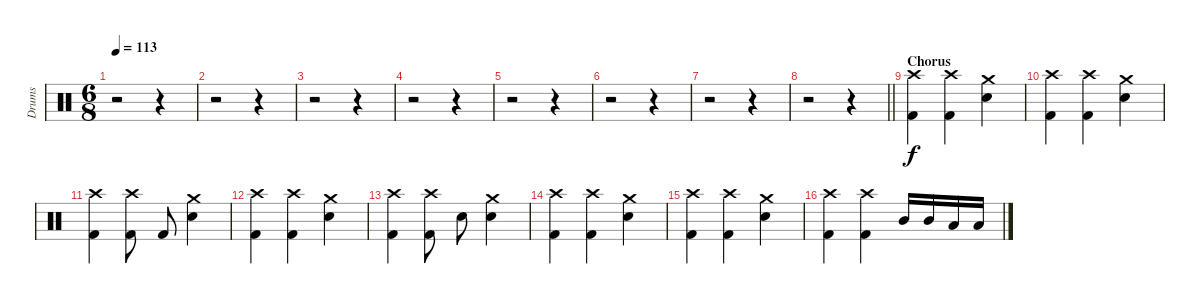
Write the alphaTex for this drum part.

\track ("Drums" "Drums") {instrument percussion}
\staff {score}
\articulation defaults
\ts (6 8)
\tempo 113
\clef neutral
\ks c
r.2{dy f} r.4 |
r.2 r.4 |
r.2 r.4 |
r.2 r.4 |
r.2 r.4 |
r.2 r.4 |
r.2 r.4 |
\barLineRight lightlight
r.2 r.4 |
\section ("" "Chorus")
("Crash high (hit)" "Kick (hit) 2").4 ("Crash high (hit)" "Kick (hit) 2").4 ("Crash medium (hit)" "Electric Snare (hit)").4 |
("Crash high (hit)" "Kick (hit) 2").4 ("Crash high (hit)" "Kick (hit) 2").4 ("Crash medium (hit)" "Electric Snare (hit)").4 |
("Crash high (hit)" "Kick (hit) 2").4 ("Crash high (hit)" "Kick (hit) 2").8 "Kick (hit) 2".8 ("Crash medium (hit)" "Electric Snare (hit)").4 |
("Crash high (hit)" "Kick (hit) 2").4 ("Crash high (hit)" "Kick (hit) 2").4 ("Crash medium (hit)" "Electric Snare (hit)").4 |
("Crash high (hit)" "Kick (hit) 2").4 ("Crash high (hit)" "Kick (hit) 2").8 "Electric Snare (hit)".8 ("Crash medium (hit)" "Electric Snare (hit)").4 |
("Crash high (hit)" "Kick (hit) 2").4 ("Crash high (hit)" "Kick (hit) 2").4 ("Crash medium (hit)" "Electric Snare (hit)").4 |
("Crash high (hit)" "Kick (hit) 2").4 ("Crash high (hit)" "Kick (hit) 2").4 ("Crash medium (hit)" "Electric Snare (hit)").4 |
("Crash high (hit)" "Kick (hit) 2").4 ("Crash high (hit)" "Kick (hit) 2").4 "Mid Tom (hit)".16 "Mid Tom (hit)".16 "Low Tom (hit)".16 "Low Tom (hit)".16
